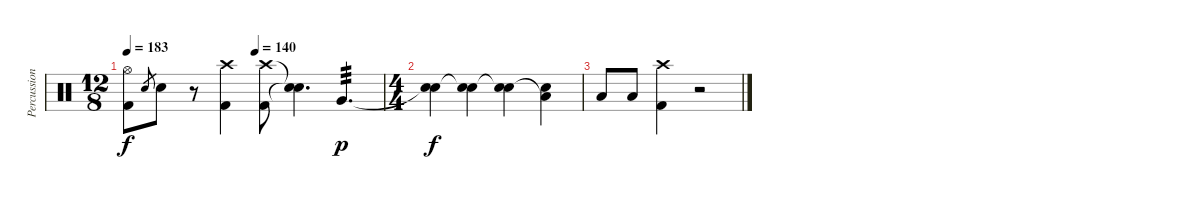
\track ("Percussion" "Percussion") {instrument percussion}
\staff {score}
\articulation defaults
\ts (12 8)
\tempo 183
\tempo (140 0.5)
\clef neutral
\ks c
("Hi-Hat (open)" "Kick (hit) 2").8{dy f} "Snare (hit) 2".8{gr} "Snare (hit) 2".8 r.8 ("Crash high (hit)" "Kick (hit) 2").4 ("Crash high (hit)" "Kick (hit) 2").8 ("Snare (hit)"{t} "Snare (hit)"{t}).4{d} "Very Low Tom (hit)".4{d tp 3 dy p} |
\ts (4 4)
("Snare (hit)"{t} "Snare (hit) 2").4{dy f} ("Snare (hit)"{t} "Snare (hit) 2").4 ("Snare (hit)"{t} "Snare (hit) 2").4 ("Low Floor Tom (hit)"{t} "Snare (hit) 2").4 |
"Low Tom (hit)".8 "Low Floor Tom (hit)".8 ("Crash high (hit)" "Kick (hit) 2").4 r.2
